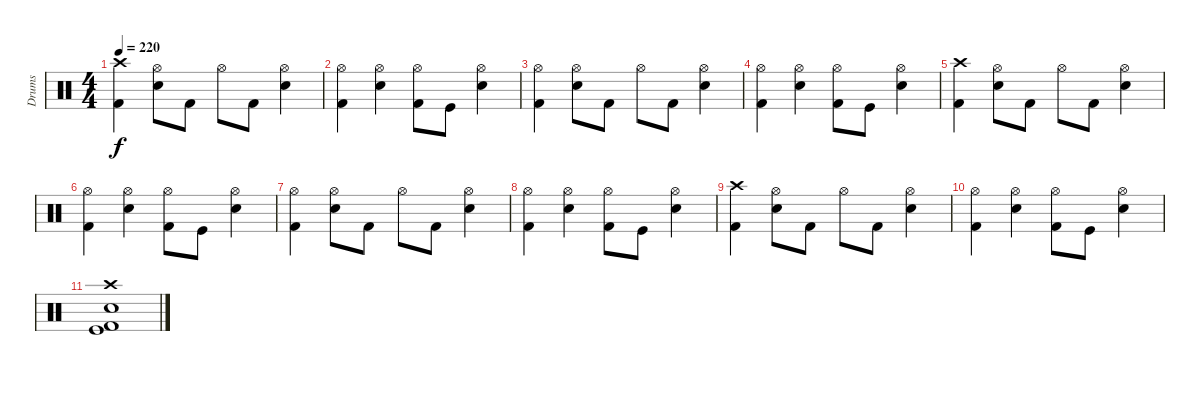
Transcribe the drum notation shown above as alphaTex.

\track ("Drums" "Drums") {instrument percussion}
\staff {score}
\articulation defaults
\ts (4 4)
\tempo 220
\clef neutral
\ks c
("Crash high (hit)" "Kick (hit) 2").4{dy f} ("Hi-Hat (open)" "Electric Snare (hit)").8 "Kick (hit) 2".8 "Hi-Hat (open)".8 "Kick (hit) 2".8 ("Hi-Hat (open)" "Electric Snare (hit)").4 |
("Hi-Hat (open)" "Kick (hit) 2").4 ("Hi-Hat (open)" "Electric Snare (hit)").4 ("Hi-Hat (open)" "Kick (hit) 2").8 "Kick (hit)".8 ("Hi-Hat (open)" "Electric Snare (hit)").4 |
("Hi-Hat (open)" "Kick (hit) 2").4 ("Hi-Hat (open)" "Electric Snare (hit)").8 "Kick (hit) 2".8 "Hi-Hat (open)".8 "Kick (hit) 2".8 ("Hi-Hat (open)" "Electric Snare (hit)").4 |
("Hi-Hat (open)" "Kick (hit) 2").4 ("Hi-Hat (open)" "Electric Snare (hit)").4 ("Hi-Hat (open)" "Kick (hit) 2").8 "Kick (hit)".8 ("Hi-Hat (open)" "Electric Snare (hit)").4 |
("Crash high (hit)" "Kick (hit) 2").4 ("Hi-Hat (open)" "Electric Snare (hit)").8 "Kick (hit) 2".8 "Hi-Hat (open)".8 "Kick (hit) 2".8 ("Hi-Hat (open)" "Electric Snare (hit)").4 |
("Hi-Hat (open)" "Kick (hit) 2").4 ("Hi-Hat (open)" "Electric Snare (hit)").4 ("Hi-Hat (open)" "Kick (hit) 2").8 "Kick (hit)".8 ("Hi-Hat (open)" "Electric Snare (hit)").4 |
("Hi-Hat (open)" "Kick (hit) 2").4 ("Hi-Hat (open)" "Electric Snare (hit)").8 "Kick (hit) 2".8 "Hi-Hat (open)".8 "Kick (hit) 2".8 ("Hi-Hat (open)" "Electric Snare (hit)").4 |
("Hi-Hat (open)" "Kick (hit) 2").4 ("Hi-Hat (open)" "Electric Snare (hit)").4 ("Hi-Hat (open)" "Kick (hit) 2").8 "Kick (hit)".8 ("Hi-Hat (open)" "Electric Snare (hit)").4 |
("Crash high (hit)" "Kick (hit) 2").4 ("Hi-Hat (open)" "Electric Snare (hit)").8 "Kick (hit) 2".8 "Hi-Hat (open)".8 "Kick (hit) 2".8 ("Hi-Hat (open)" "Electric Snare (hit)").4 |
("Hi-Hat (open)" "Kick (hit) 2").4 ("Hi-Hat (open)" "Electric Snare (hit)").4 ("Hi-Hat (open)" "Kick (hit) 2").8 "Kick (hit)".8 ("Hi-Hat (open)" "Electric Snare (hit)").4 |
("Crash high (hit)" "Electric Snare (hit)" "Kick (hit)" "Kick (hit) 2").1
